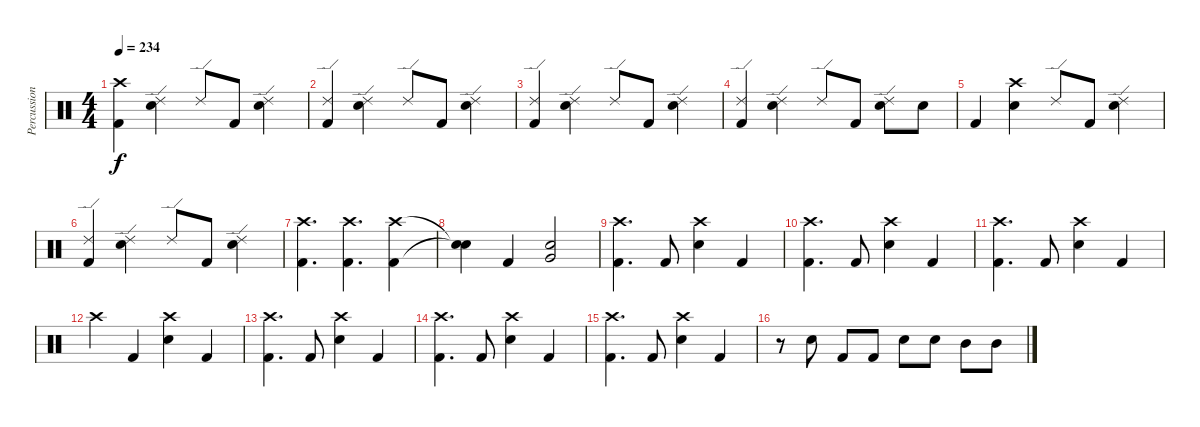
\track ("Percussions" "Percussion") {instrument percussion}
\staff {score}
\articulation defaults
\ts (4 4)
\tempo 234
\clef neutral
\ks c
("Crash high (hit)" "Kick (hit) 2").4{dy f} ("Ride (edge) 2" "Snare (hit) 2").4 "Ride (edge) 2".8 "Kick (hit) 2".8 ("Ride (edge) 2" "Snare (hit) 2").4 |
("Ride (edge) 2" "Kick (hit) 2").4 ("Ride (edge) 2" "Snare (hit) 2").4 "Ride (edge) 2".8 "Kick (hit) 2".8 ("Ride (edge) 2" "Snare (hit) 2").4 |
("Ride (edge) 2" "Kick (hit) 2").4 ("Ride (edge) 2" "Snare (hit) 2").4 "Ride (edge) 2".8 "Kick (hit) 2".8 ("Ride (edge) 2" "Snare (hit) 2").4 |
("Ride (edge) 2" "Kick (hit) 2").4 ("Ride (edge) 2" "Snare (hit) 2").4 "Ride (edge) 2".8 "Kick (hit) 2".8 ("Ride (edge) 2" "Snare (hit) 2").8 "Snare (hit) 2".8 |
"Kick (hit) 2".4 ("Crash high (hit)" "Snare (hit) 2").4 "Ride (edge) 2".8 "Kick (hit) 2".8 ("Ride (edge) 2" "Snare (hit) 2").4 |
("Ride (edge) 2" "Kick (hit) 2").4 ("Ride (edge) 2" "Snare (hit) 2").4 "Ride (edge) 2".8 "Kick (hit) 2".8 ("Ride (edge) 2" "Snare (hit) 2").4 |
("Crash high (hit)" "Kick (hit) 2").4{d} ("Crash high (hit)" "Kick (hit) 2").4{d} ("Crash high (hit)" "Kick (hit) 2").4 |
("Snare (hit)"{t} "Snare (hit)"{t}).4 "Kick (hit) 2".4 ("Snare (hit) 2" "Very Low Tom (hit)").2 |
("Crash high (hit)" "Kick (hit) 2").4{d} "Kick (hit) 2".8 ("Crash high (hit)" "Snare (hit) 2").4 "Kick (hit) 2".4 |
("Crash high (hit)" "Kick (hit) 2").4{d} "Kick (hit) 2".8 ("Crash high (hit)" "Snare (hit) 2").4 "Kick (hit) 2".4 |
("Crash high (hit)" "Kick (hit) 2").4{d} "Kick (hit) 2".8 ("Crash high (hit)" "Snare (hit) 2").4 "Kick (hit) 2".4 |
"Crash high (hit)".4 "Kick (hit) 2".4 ("Crash high (hit)" "Snare (hit) 2").4 "Kick (hit) 2".4 |
("Crash high (hit)" "Kick (hit) 2").4{d} "Kick (hit) 2".8 ("Crash high (hit)" "Snare (hit) 2").4 "Kick (hit) 2".4 |
("Crash high (hit)" "Kick (hit) 2").4{d} "Kick (hit) 2".8 ("Crash high (hit)" "Snare (hit) 2").4 "Kick (hit) 2".4 |
("Crash high (hit)" "Kick (hit) 2").4{d} "Kick (hit) 2".8 ("Crash high (hit)" "Snare (hit) 2").4 "Kick (hit) 2".4 |
r.8 "Snare (hit) 2".8 "Kick (hit) 2".8 "Kick (hit) 2".8 "Snare (hit) 2".8 "Snare (hit) 2".8 "Mid Tom (hit)".8 "Mid Tom (hit)".8
